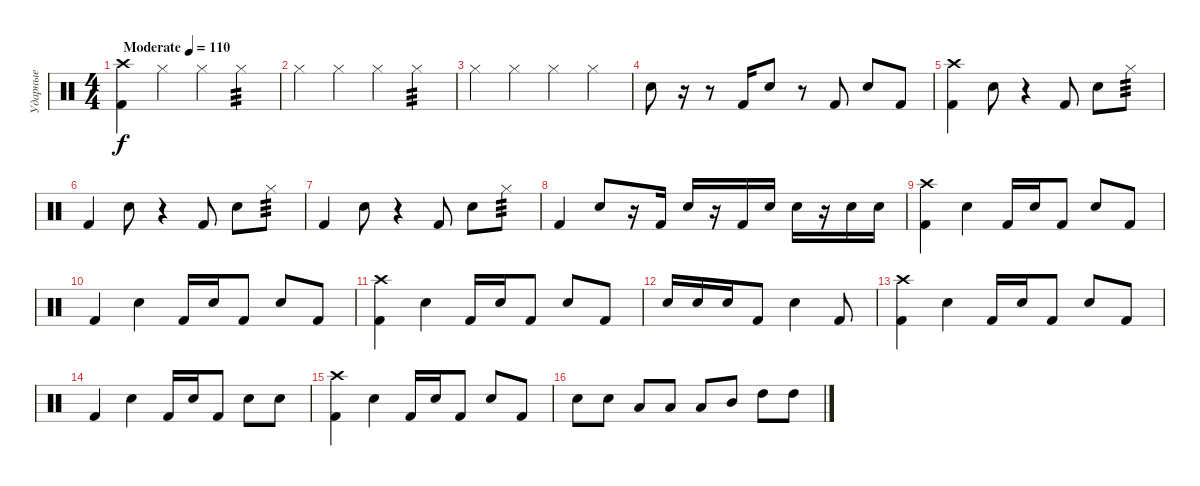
\track ("Ударные" "Ударные") {instrument percussion}
\staff {score}
\articulation defaults
\ts (4 4)
\tempo (110 "Moderate")
\clef neutral
\ks c
("Crash high (hit)" "Kick (hit) 2").4{dy f} "Hi-Hat (closed)".4 "Hi-Hat (closed)".4 "Hi-Hat (closed)".4{tp 3} |
"Hi-Hat (closed)".4 "Hi-Hat (closed)".4 "Hi-Hat (closed)".4 "Hi-Hat (closed)".4{tp 3} |
"Hi-Hat (closed)".4 "Hi-Hat (closed)".4 "Hi-Hat (closed)".4 "Hi-Hat (closed)".4 |
"Electric Snare (hit)".8 r.16 r.8 "Kick (hit) 2".16 "Electric Snare (hit)".8 r.8 "Kick (hit) 2".8 "Electric Snare (hit)".8 "Kick (hit) 2".8 |
("Kick (hit) 2" "Crash high (hit)").4 "Electric Snare (hit)".8 r.4 "Kick (hit) 2".8 "Electric Snare (hit)".8 "Hi-Hat (closed)".8{tp 3} |
"Kick (hit) 2".4 "Electric Snare (hit)".8 r.4 "Kick (hit) 2".8 "Electric Snare (hit)".8 "Hi-Hat (closed)".8{tp 3} |
"Kick (hit) 2".4 "Electric Snare (hit)".8 r.4 "Kick (hit) 2".8 "Electric Snare (hit)".8 "Hi-Hat (closed)".8{tp 3} |
"Kick (hit) 2".4 "Electric Snare (hit)".8 r.16 "Kick (hit) 2".16 "Electric Snare (hit)".16 r.16 "Kick (hit) 2".16 "Electric Snare (hit)".16 "Electric Snare (hit)".16 r.16 "Electric Snare (hit)".16 "Electric Snare (hit)".16 |
("Crash high (hit)" "Kick (hit) 2").4 "Electric Snare (hit)".4 "Kick (hit) 2".16 "Electric Snare (hit)".16 "Kick (hit) 2".8 "Electric Snare (hit)".8 "Kick (hit) 2".8 |
"Kick (hit) 2".4 "Electric Snare (hit)".4 "Kick (hit) 2".16 "Electric Snare (hit)".16 "Kick (hit) 2".8 "Electric Snare (hit)".8 "Kick (hit) 2".8 |
("Crash high (hit)" "Kick (hit) 2").4 "Electric Snare (hit)".4 "Kick (hit) 2".16 "Electric Snare (hit)".16 "Kick (hit) 2".8 "Electric Snare (hit)".8 "Kick (hit) 2".8 |
"Electric Snare (hit)".16 "Electric Snare (hit)".16 "Electric Snare (hit)".16 "Kick (hit) 2".8 "Electric Snare (hit)".4 "Kick (hit) 2".8 |
("Crash high (hit)" "Kick (hit) 2").4 "Electric Snare (hit)".4 "Kick (hit) 2".16 "Electric Snare (hit)".16 "Kick (hit) 2".8 "Electric Snare (hit)".8 "Kick (hit) 2".8 |
"Kick (hit) 2".4 "Electric Snare (hit)".4 "Kick (hit) 2".16 "Electric Snare (hit)".16 "Kick (hit) 2".8 "Electric Snare (hit)".8 "Electric Snare (hit)".8 |
("Crash high (hit)" "Kick (hit) 2").4 "Electric Snare (hit)".4 "Kick (hit) 2".16 "Electric Snare (hit)".16 "Kick (hit) 2".8 "Electric Snare (hit)".8 "Kick (hit) 2".8 |
"Electric Snare (hit)".8 "Electric Snare (hit)".8 "Low Tom (hit)".8 "Low Tom (hit)".8 "Low Tom (hit)".8 "Mid Tom (hit)".8 "High Tom (hit)".8 "High Tom (hit)".8
